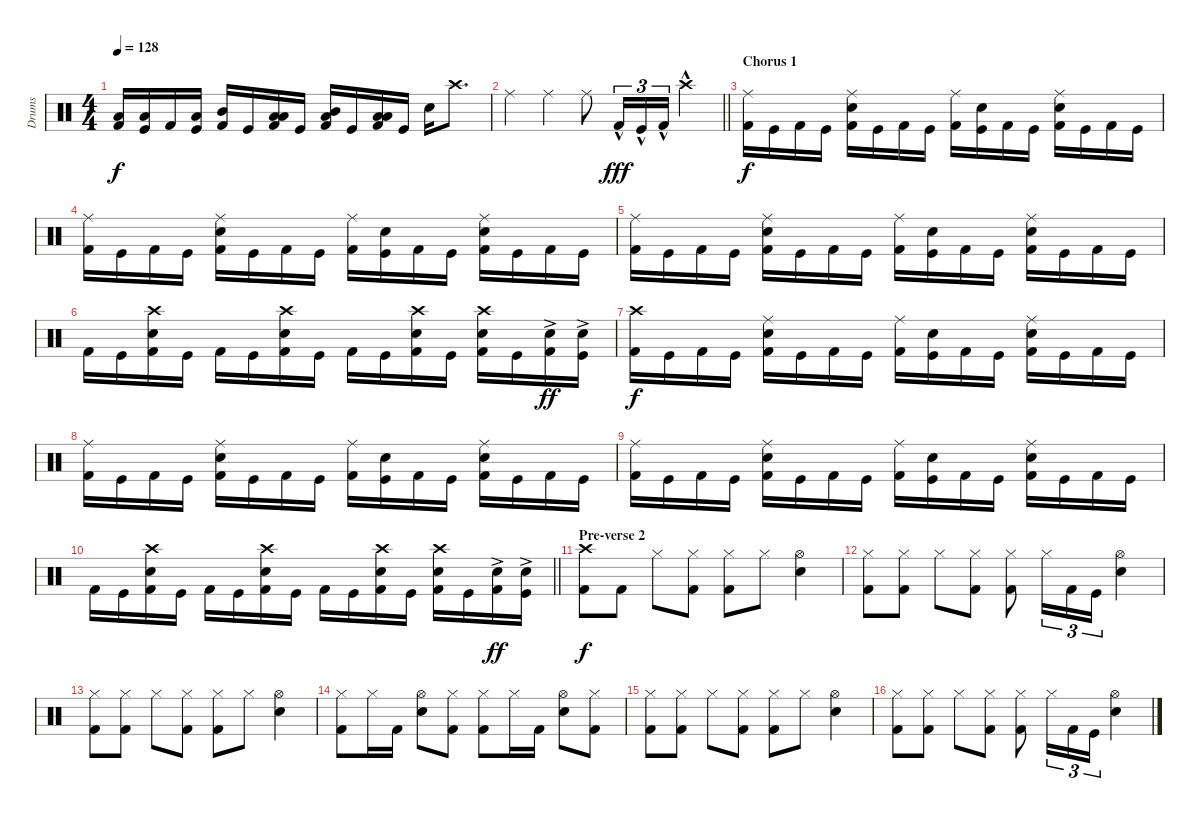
\track ("Drums" "Drums") {instrument percussion}
\staff {score}
\articulation defaults
\ts (4 4)
\tempo 128
\clef neutral
\ks c
("Low Floor Tom (hit)" "Kick (hit) 2").16{dy f} ("Low Tom (hit)" "Kick (hit)").16 "Kick (hit) 2".16 ("Low Floor Tom (hit)" "Kick (hit)").16 ("Mid Tom (hit)" "Kick (hit) 2").16 "Kick (hit)".16 ("Low Tom (hit)" "Low Floor Tom (hit)" "Kick (hit) 2").16 "Kick (hit)".16 ("Mid Tom (hit)" "Low Tom (hit)" "Kick (hit) 2").16 "Kick (hit)".16 ("Low Tom (hit)" "Low Floor Tom (hit)" "Kick (hit) 2").16 "Kick (hit)".16 "Electric Snare (hit)".16 "Crash high (hit)".8{d} |
\barLineRight lightlight "Ride (middle)".4 "Ride (middle)".4 "Ride (middle)".8 "Kick (hit) 2"{hac}.16{tu (3 2) dy fff} "Kick (hit)"{hac}.16{tu (3 2)} "Kick (hit) 2"{hac}.16{tu (3 2)} "Crash high (hit)"{hac}.4
|
\section ("" "Chorus 1")
("Ride (middle)" "Kick (hit) 2").16{dy f} "Kick (hit)".16 "Kick (hit) 2".16 "Kick (hit)".16 ("Ride (middle)" "Electric Snare (hit)" "Kick (hit) 2").16 "Kick (hit)".16 "Kick (hit) 2".16 "Kick (hit)".16 ("Ride (middle)" "Kick (hit) 2").16 ("Electric Snare (hit)" "Kick (hit)").16 "Kick (hit) 2".16 "Kick (hit)".16 ("Ride (middle)" "Electric Snare (hit)" "Kick (hit) 2").16 "Kick (hit)".16 "Kick (hit) 2".16 "Kick (hit)".16 |
("Ride (middle)" "Kick (hit) 2").16 "Kick (hit)".16 "Kick (hit) 2".16 "Kick (hit)".16 ("Ride (middle)" "Electric Snare (hit)" "Kick (hit) 2").16 "Kick (hit)".16 "Kick (hit) 2".16 "Kick (hit)".16 ("Ride (middle)" "Kick (hit) 2").16 ("Electric Snare (hit)" "Kick (hit)").16 "Kick (hit) 2".16 "Kick (hit)".16 ("Ride (middle)" "Electric Snare (hit)" "Kick (hit) 2").16 "Kick (hit)".16 "Kick (hit) 2".16 "Kick (hit)".16 |
("Ride (middle)" "Kick (hit) 2").16 "Kick (hit)".16 "Kick (hit) 2".16 "Kick (hit)".16 ("Ride (middle)" "Electric Snare (hit)" "Kick (hit) 2").16 "Kick (hit)".16 "Kick (hit) 2".16 "Kick (hit)".16 ("Ride (middle)" "Kick (hit) 2").16 ("Electric Snare (hit)" "Kick (hit)").16 "Kick (hit) 2".16 "Kick (hit)".16 ("Ride (middle)" "Electric Snare (hit)" "Kick (hit) 2").16 "Kick (hit)".16 "Kick (hit) 2".16 "Kick (hit)".16 |
"Kick (hit) 2".16 "Kick (hit)".16 ("Crash high (hit)" "Electric Snare (hit)" "Kick (hit) 2").16 "Kick (hit)".16 "Kick (hit) 2".16 "Kick (hit)".16 ("Crash high (hit)" "Electric Snare (hit)" "Kick (hit) 2").16 "Kick (hit)".16 "Kick (hit) 2".16 "Kick (hit)".16 ("Crash high (hit)" "Electric Snare (hit)" "Kick (hit) 2").16 "Kick (hit)".16 ("Crash high (hit)" "Electric Snare (hit)" "Kick (hit) 2").16 "Kick (hit)".16 ("Electric Snare (hit)"{ac} "Kick (hit) 2").16{dy ff} ("Electric Snare (hit)"{ac} "Kick (hit)").16 |
("Crash high (hit)" "Kick (hit) 2").16{dy f} "Kick (hit)".16 "Kick (hit) 2".16 "Kick (hit)".16 ("Ride (middle)" "Electric Snare (hit)" "Kick (hit) 2").16 "Kick (hit)".16 "Kick (hit) 2".16 "Kick (hit)".16 ("Ride (middle)" "Kick (hit) 2").16 ("Electric Snare (hit)" "Kick (hit)").16 "Kick (hit) 2".16 "Kick (hit)".16 ("Ride (middle)" "Electric Snare (hit)" "Kick (hit) 2").16 "Kick (hit)".16 "Kick (hit) 2".16 "Kick (hit)".16 |
("Ride (middle)" "Kick (hit) 2").16 "Kick (hit)".16 "Kick (hit) 2".16 "Kick (hit)".16 ("Ride (middle)" "Electric Snare (hit)" "Kick (hit) 2").16 "Kick (hit)".16 "Kick (hit) 2".16 "Kick (hit)".16 ("Ride (middle)" "Kick (hit) 2").16 ("Electric Snare (hit)" "Kick (hit)").16 "Kick (hit) 2".16 "Kick (hit)".16 ("Ride (middle)" "Electric Snare (hit)" "Kick (hit) 2").16 "Kick (hit)".16 "Kick (hit) 2".16 "Kick (hit)".16 |
("Ride (middle)" "Kick (hit) 2").16 "Kick (hit)".16 "Kick (hit) 2".16 "Kick (hit)".16 ("Ride (middle)" "Electric Snare (hit)" "Kick (hit) 2").16 "Kick (hit)".16 "Kick (hit) 2".16 "Kick (hit)".16 ("Ride (middle)" "Kick (hit) 2").16 ("Electric Snare (hit)" "Kick (hit)").16 "Kick (hit) 2".16 "Kick (hit)".16 ("Ride (middle)" "Electric Snare (hit)" "Kick (hit) 2").16 "Kick (hit)".16 "Kick (hit) 2".16 "Kick (hit)".16 |
\barLineRight lightlight "Kick (hit) 2".16 "Kick (hit)".16
("Crash high (hit)" "Electric Snare (hit)" "Kick (hit) 2").16 "Kick (hit)".16 "Kick (hit) 2".16 "Kick (hit)".16 ("Crash high (hit)" "Electric Snare (hit)" "Kick (hit) 2").16 "Kick (hit)".16 "Kick (hit) 2".16 "Kick (hit)".16 ("Crash high (hit)" "Electric Snare (hit)" "Kick (hit) 2").16 "Kick (hit)".16 ("Crash high (hit)" "Electric Snare (hit)" "Kick (hit) 2").16 "Kick (hit)".16 ("Electric Snare (hit)"{ac} "Kick (hit) 2").16{dy ff} ("Electric Snare (hit)"{ac} "Kick (hit)").16 |
\section ("" "Pre-verse 2")
("Crash high (hit)" "Kick (hit) 2").8{dy f} "Kick (hit) 2".8 "Hi-Hat (closed)".8 ("Hi-Hat (closed)" "Kick (hit) 2").8 ("Hi-Hat (closed)" "Kick (hit) 2").8 "Hi-Hat (closed)".8 ("Hi-Hat (open)" "Electric Snare (hit)").4 |
("Hi-Hat (closed)" "Kick (hit) 2").8 ("Hi-Hat (closed)" "Kick (hit) 2").8 "Hi-Hat (closed)".8 ("Hi-Hat (closed)" "Kick (hit) 2").8 ("Hi-Hat (closed)" "Kick (hit) 2").8 "Hi-Hat (closed)".16{tu (3 2)} "Kick (hit) 2".16{tu (3 2)} "Kick (hit)".16{tu (3 2)} ("Hi-Hat (open)" "Electric Snare (hit)").4 |
("Hi-Hat (closed)" "Kick (hit) 2").8 ("Hi-Hat (closed)" "Kick (hit) 2").8 "Hi-Hat (closed)".8 ("Hi-Hat (closed)" "Kick (hit) 2").8 ("Hi-Hat (closed)" "Kick (hit) 2").8 "Hi-Hat (closed)".8 ("Hi-Hat (open)" "Electric Snare (hit)").4 |
("Hi-Hat (closed)" "Kick (hit) 2").8 "Hi-Hat (closed)".16 "Kick (hit) 2".16 ("Hi-Hat (open)" "Electric Snare (hit)").8 ("Hi-Hat (closed)" "Kick (hit) 2").8 ("Hi-Hat (closed)" "Kick (hit) 2").8 "Hi-Hat (closed)".16 "Kick (hit) 2".16 ("Hi-Hat (open)" "Electric Snare (hit)").8 ("Hi-Hat (closed)" "Kick (hit) 2").8 |
("Hi-Hat (closed)" "Kick (hit) 2").8 ("Hi-Hat (closed)" "Kick (hit) 2").8 "Hi-Hat (closed)".8 ("Hi-Hat (closed)" "Kick (hit) 2").8 ("Hi-Hat (closed)" "Kick (hit) 2").8 "Hi-Hat (closed)".8 ("Hi-Hat (open)" "Electric Snare (hit)").4 |
("Hi-Hat (closed)" "Kick (hit) 2").8 ("Hi-Hat (closed)" "Kick (hit) 2").8 "Hi-Hat (closed)".8 ("Hi-Hat (closed)" "Kick (hit) 2").8 ("Hi-Hat (closed)" "Kick (hit) 2").8 "Hi-Hat (closed)".16{tu (3 2)} "Kick (hit) 2".16{tu (3 2)} "Kick (hit)".16{tu (3 2)} ("Hi-Hat (open)" "Electric Snare (hit)").4
